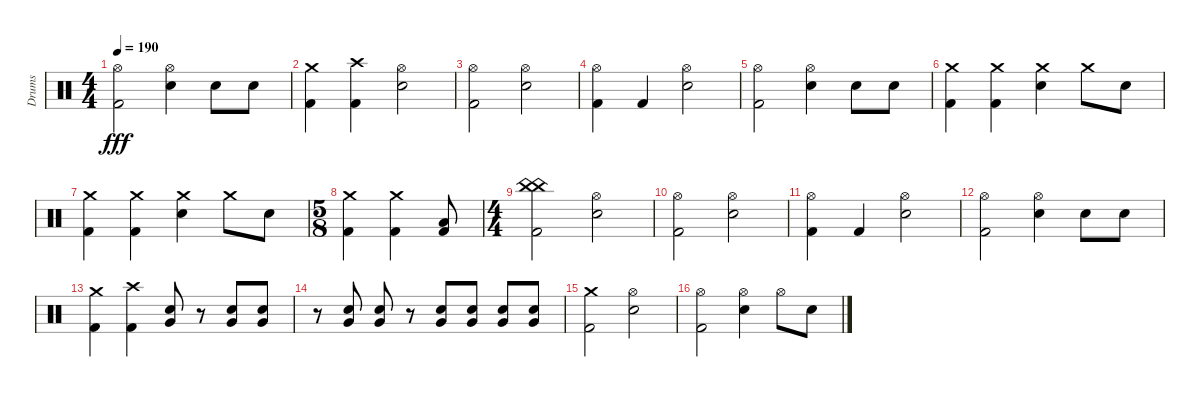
\track ("Drums" "Drums") {instrument percussion}
\staff {score}
\articulation defaults
\ts (4 4)
\tempo 190
\clef neutral
\ks c
("Kick (hit) 2" "Hi-Hat (open)").2{dy fff} ("Electric Snare (hit)" "Hi-Hat (open)").4 "Electric Snare (hit)".8 "Electric Snare (hit)".8 |
("Kick (hit) 2" "Crash medium (hit)").4 ("Crash high (hit)" "Kick (hit) 2").4 ("Hi-Hat (open)" "Electric Snare (hit)").2 |
("Kick (hit) 2" "Hi-Hat (open)").2 ("Electric Snare (hit)" "Hi-Hat (open)").2 |
("Kick (hit) 2" "Hi-Hat (open)").4 "Kick (hit) 2".4 ("Electric Snare (hit)" "Hi-Hat (open)").2 |
("Kick (hit) 2" "Hi-Hat (open)").2 ("Electric Snare (hit)" "Hi-Hat (open)").4 "Electric Snare (hit)".8 "Electric Snare (hit)".8 |
("Kick (hit) 2" "Crash medium (hit)").4 ("Kick (hit) 2" "Crash medium (hit)").4 ("Electric Snare (hit)" "Crash medium (hit)").4 "Crash medium (hit)".8 "Electric Snare (hit)".8 |
("Kick (hit) 2" "Crash medium (hit)").4 ("Kick (hit) 2" "Crash medium (hit)").4 ("Crash medium (hit)" "Electric Snare (hit)").4 "Crash medium (hit)".8 "Electric Snare (hit)".8 |
\ts (5 8)
("Kick (hit) 2" "Crash medium (hit)").4 ("Kick (hit) 2" "Crash medium (hit)").4 ("Kick (hit) 2" "Low Floor Tom (hit)").8 |
\ts (4 4)
("Kick (hit) 2" "China (hit)" "China (hit)").2 ("Hi-Hat (open)" "Electric Snare (hit)").2 |
("Kick (hit) 2" "Hi-Hat (open)").2 ("Electric Snare (hit)" "Hi-Hat (open)").2 |
("Kick (hit) 2" "Hi-Hat (open)").4 "Kick (hit) 2".4 ("Electric Snare (hit)" "Hi-Hat (open)").2 |
("Kick (hit) 2" "Hi-Hat (open)").2 ("Electric Snare (hit)" "Hi-Hat (open)").4 "Electric Snare (hit)".8 "Electric Snare (hit)".8 |
("Kick (hit) 2" "Crash medium (hit)").4 ("Crash high (hit)" "Kick (hit) 2").4 ("Very Low Tom (hit)" "Electric Snare (hit)").8 r.8 ("Electric Snare (hit)" "Very Low Tom (hit)").8 ("Electric Snare (hit)" "Very Low Tom (hit)").8 |
r.8 ("Electric Snare (hit)" "Very Low Tom (hit)").8 ("Electric Snare (hit)" "Very Low Tom (hit)").8 r.8 ("Electric Snare (hit)" "Very Low Tom (hit)").8 ("Electric Snare (hit)" "Very Low Tom (hit)").8 ("Electric Snare (hit)" "Very Low Tom (hit)").8 ("Electric Snare (hit)" "Very Low Tom (hit)").8 |
("Kick (hit) 2" "Crash medium (hit)").2 ("Hi-Hat (open)" "Electric Snare (hit)").2 |
("Kick (hit) 2" "Hi-Hat (open)").2 ("Electric Snare (hit)" "Hi-Hat (open)").4 "Hi-Hat (open)".8 "Electric Snare (hit)".8
